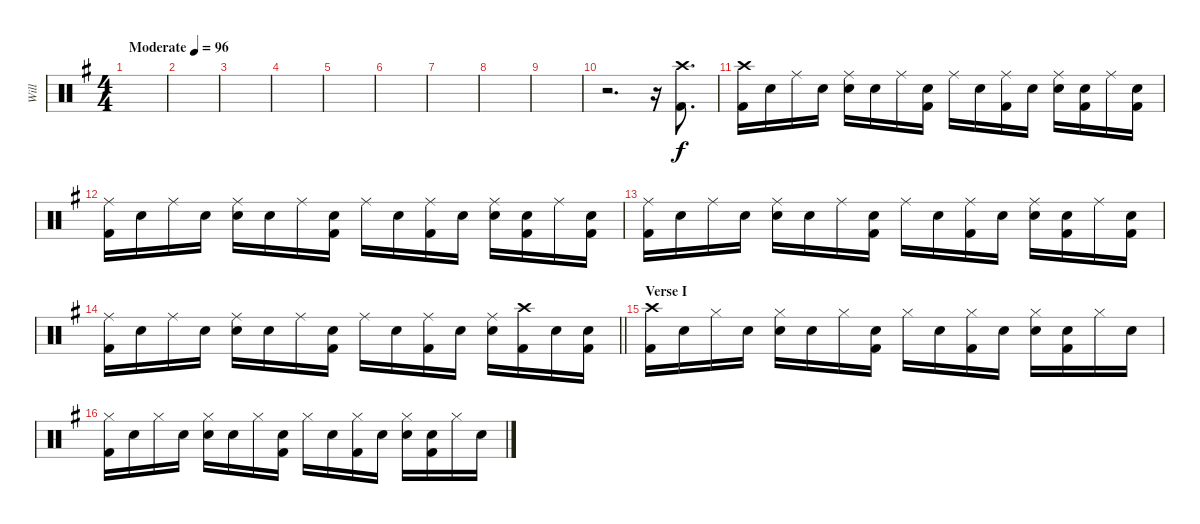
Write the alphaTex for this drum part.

\track ("Will" "Will") {instrument percussion}
\staff {score}
\articulation defaults
\ts (4 4)
\tempo (96 "Moderate")
\clef neutral
\ks g
|
|
|
|
|
|
|
|
|
r.2{d} r.16 ("Crash high (hit)" "Kick (hit) 2").8{d} |
("Crash high (hit)" "Kick (hit) 2").16 "Snare (hit)".16 "Ride (middle)".16 "Snare (hit)".16 ("Ride (middle)" "Snare (hit) 2").16 "Snare (hit)".16 "Ride (middle)".16 ("Snare (hit)" "Kick (hit) 2").16 "Ride (middle)".16 "Snare (hit)".16 ("Ride (middle)" "Kick (hit) 2").16 "Snare (hit)".16 ("Ride (middle)" "Snare (hit) 2").16 ("Snare (hit)" "Kick (hit) 2").16 "Ride (middle)".16 ("Snare (hit)" "Kick (hit) 2").16 |
("Ride (middle)" "Kick (hit) 2").16 "Snare (hit)".16 "Ride (middle)".16 "Snare (hit)".16 ("Ride (middle)" "Snare (hit) 2").16 "Snare (hit)".16 "Ride (middle)".16 ("Snare (hit)" "Kick (hit) 2").16 "Ride (middle)".16 "Snare (hit)".16 ("Ride (middle)" "Kick (hit) 2").16 "Snare (hit)".16 ("Ride (middle)" "Snare (hit) 2").16 ("Snare (hit)" "Kick (hit) 2").16 "Ride (middle)".16 ("Snare (hit)" "Kick (hit) 2").16 |
("Ride (middle)" "Kick (hit) 2").16 "Snare (hit)".16 "Ride (middle)".16 "Snare (hit)".16 ("Ride (middle)" "Snare (hit) 2").16 "Snare (hit)".16 "Ride (middle)".16 ("Snare (hit)" "Kick (hit) 2").16 "Ride (middle)".16 "Snare (hit)".16 ("Ride (middle)" "Kick (hit) 2").16 "Snare (hit)".16 ("Ride (middle)" "Snare (hit) 2").16 ("Snare (hit)" "Kick (hit) 2").16 "Ride (middle)".16 ("Snare (hit)" "Kick (hit) 2").16 |
\barLineRight lightlight
("Ride (middle)" "Kick (hit) 2").16 "Snare (hit)".16 "Ride (middle)".16 "Snare (hit)".16 ("Ride (middle)" "Snare (hit) 2").16 "Snare (hit)".16 "Ride (middle)".16 ("Snare (hit)" "Kick (hit) 2").16 "Ride (middle)".16 "Snare (hit)".16 ("Ride (middle)" "Kick (hit) 2").16 "Snare (hit)".16 ("Ride (middle)" "Snare (hit) 2").16 ("Crash high (hit)" "Kick (hit) 2").16 "Snare (hit)".16 ("Snare (hit)" "Kick (hit) 2").16 |
\section ("" "Verse I")
("Crash high (hit)" "Kick (hit) 2").16 "Snare (hit)".16 "Hi-Hat (closed)".16 "Snare (hit)".16 ("Hi-Hat (closed)" "Snare (hit) 2").16 "Snare (hit)".16 "Hi-Hat (closed)".16 ("Snare (hit)" "Kick (hit) 2").16 "Hi-Hat (closed)".16 "Snare (hit)".16 ("Hi-Hat (closed)" "Kick (hit) 2").16 "Snare (hit)".16 ("Hi-Hat (closed)" "Snare (hit) 2").16 ("Snare (hit)" "Kick (hit) 2").16 "Hi-Hat (closed)".16 "Snare (hit)".16 |
("Hi-Hat (closed)" "Kick (hit) 2").16 "Snare (hit)".16 "Hi-Hat (closed)".16 "Snare (hit)".16 ("Hi-Hat (closed)" "Snare (hit) 2").16 "Snare (hit)".16 "Hi-Hat (closed)".16 ("Snare (hit)" "Kick (hit) 2").16 "Hi-Hat (closed)".16 "Snare (hit)".16 ("Hi-Hat (closed)" "Kick (hit) 2").16 "Snare (hit)".16 ("Hi-Hat (closed)" "Snare (hit) 2").16 ("Snare (hit)" "Kick (hit) 2").16 "Hi-Hat (closed)".16 "Snare (hit)".16
